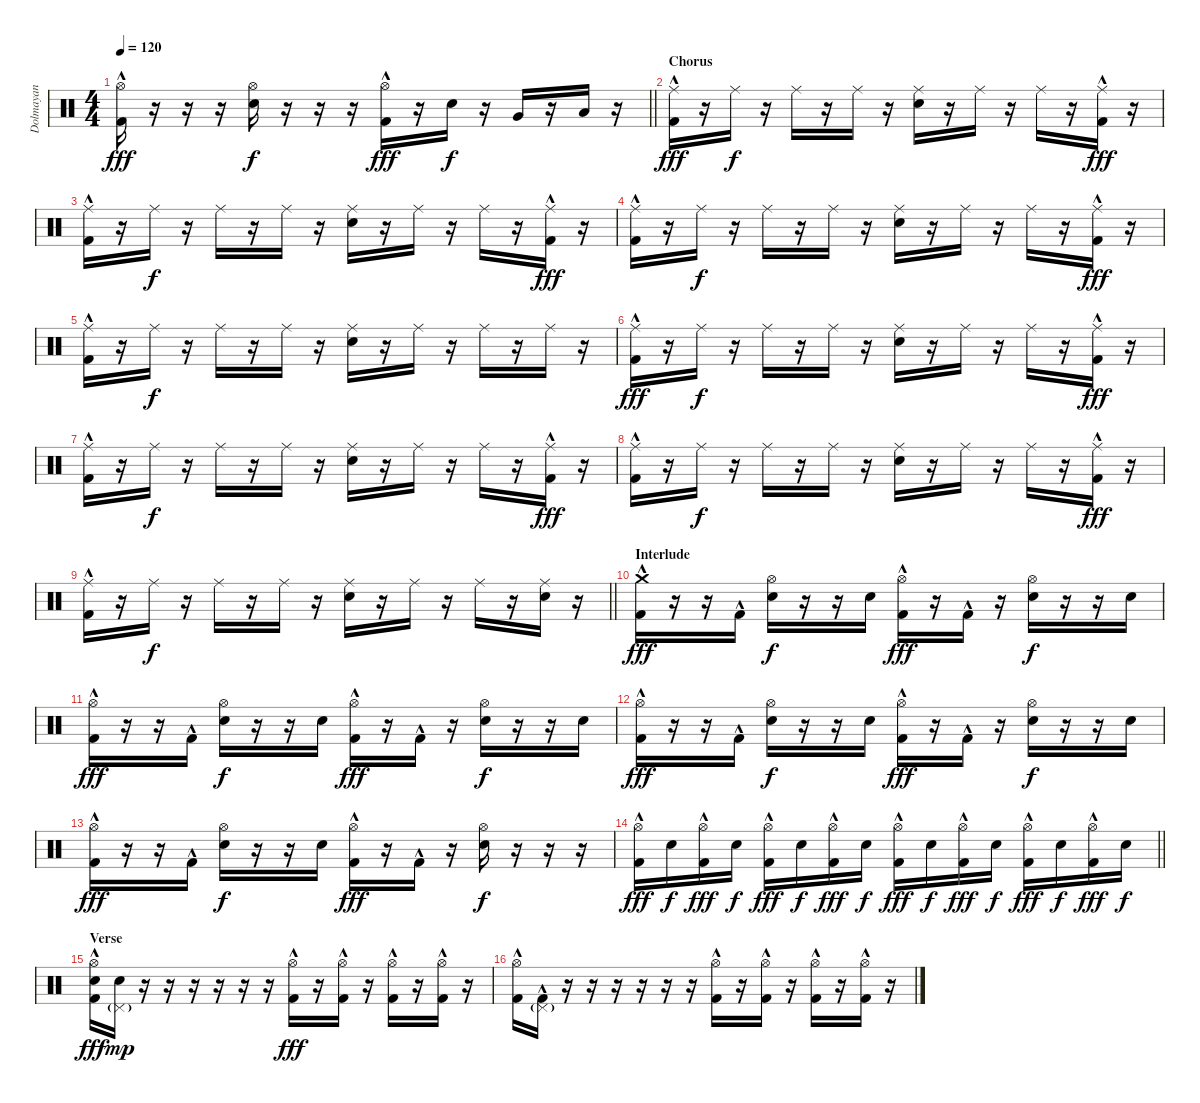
\track ("Dolmayan" "Dolmayan") {instrument percussion}
\staff {score}
\articulation defaults
\ts (4 4)
\tempo 120
\clef neutral
\barLineRight lightlight
\ks c
("Hi-Hat (open)" "Kick (hit) 2"{hac}).16{dy fff} r.16 r.16 r.16 ("Hi-Hat (open)" "Snare (hit) 2").16{dy f} r.16 r.16 r.16 ("Hi-Hat (open)" "Kick (hit) 2"{hac}).16{dy fff} r.16 "Snare (hit) 2".16{dy f} r.16 "Very Low Tom (hit)".16 r.16 "Low Floor Tom (hit)".16 r.16 |
\section ("" "Chorus")
("Ride (middle)" "Kick (hit) 2"{hac}).16{dy fff} r.16 "Ride (middle)".16{dy f} r.16 "Ride (middle)".16 r.16 "Ride (middle)".16 r.16 ("Ride (middle)" "Snare (hit) 2").16 r.16 "Ride (middle)".16 r.16 "Ride (middle)".16 r.16 ("Ride (middle)" "Kick (hit) 2"{hac}).16{dy fff} r.16 |
("Ride (middle)" "Kick (hit) 2"{hac}).16 r.16 "Ride (middle)".16{dy f} r.16 "Ride (middle)".16 r.16 "Ride (middle)".16 r.16 ("Ride (middle)" "Snare (hit) 2").16 r.16 "Ride (middle)".16 r.16 "Ride (middle)".16 r.16 ("Ride (middle)" "Kick (hit) 2"{hac}).16{dy fff} r.16 |
("Ride (middle)" "Kick (hit) 2"{hac}).16 r.16 "Ride (middle)".16{dy f} r.16 "Ride (middle)".16 r.16 "Ride (middle)".16 r.16 ("Ride (middle)" "Snare (hit) 2").16 r.16 "Ride (middle)".16 r.16 "Ride (middle)".16 r.16 ("Ride (middle)" "Kick (hit) 2"{hac}).16{dy fff} r.16 |
("Ride (middle)" "Kick (hit) 2"{hac}).16 r.16 "Ride (middle)".16{dy f} r.16 "Ride (middle)".16 r.16 "Ride (middle)".16 r.16 ("Ride (middle)" "Snare (hit) 2").16 r.16 "Ride (middle)".16 r.16 "Ride (middle)".16 r.16 "Ride (middle)".16 r.16 |
("Ride (middle)" "Kick (hit) 2"{hac}).16{dy fff} r.16 "Ride (middle)".16{dy f} r.16 "Ride (middle)".16 r.16 "Ride (middle)".16 r.16 ("Ride (middle)" "Snare (hit) 2").16 r.16 "Ride (middle)".16 r.16 "Ride (middle)".16 r.16 ("Ride (middle)" "Kick (hit) 2"{hac}).16{dy fff} r.16 |
("Ride (middle)" "Kick (hit) 2"{hac}).16 r.16 "Ride (middle)".16{dy f} r.16 "Ride (middle)".16 r.16 "Ride (middle)".16 r.16 ("Ride (middle)" "Snare (hit) 2").16 r.16 "Ride (middle)".16 r.16 "Ride (middle)".16 r.16 ("Ride (middle)" "Kick (hit) 2"{hac}).16{dy fff} r.16 |
("Ride (middle)" "Kick (hit) 2"{hac}).16 r.16 "Ride (middle)".16{dy f} r.16 "Ride (middle)".16 r.16 "Ride (middle)".16 r.16 ("Ride (middle)" "Snare (hit) 2").16 r.16 "Ride (middle)".16 r.16 "Ride (middle)".16 r.16 ("Ride (middle)" "Kick (hit) 2"{hac}).16{dy fff} r.16 |
\barLineRight lightlight
("Ride (middle)" "Kick (hit) 2"{hac}).16 r.16 "Ride (middle)".16{dy f} r.16 "Ride (middle)".16 r.16 "Ride (middle)".16 r.16 ("Ride (middle)" "Snare (hit) 2").16 r.16 "Ride (middle)".16 r.16 "Ride (middle)".16 r.16 ("Ride (middle)" "Snare (hit) 2").16 r.16 |
\section ("" "Interlude")
("Crash medium (hit)" "Kick (hit) 2"{hac}).16{dy fff} r.16 r.16 "Kick (hit) 2"{hac}.16 ("Hi-Hat (open)" "Snare (hit) 2").16{dy f} r.16 r.16 "Snare (hit) 2".16 ("Hi-Hat (open)" "Kick (hit) 2"{hac}).16{dy fff} r.16 "Kick (hit) 2"{hac}.16 r.16 ("Hi-Hat (open)" "Snare (hit) 2").16{dy f} r.16 r.16 "Snare (hit) 2".16 |
("Hi-Hat (open)" "Kick (hit) 2"{hac}).16{dy fff} r.16 r.16 "Kick (hit) 2"{hac}.16 ("Hi-Hat (open)" "Snare (hit) 2").16{dy f} r.16 r.16 "Snare (hit) 2".16 ("Hi-Hat (open)" "Kick (hit) 2"{hac}).16{dy fff} r.16 "Kick (hit) 2"{hac}.16 r.16 ("Hi-Hat (open)" "Snare (hit) 2").16{dy f} r.16 r.16 "Snare (hit) 2".16 |
("Hi-Hat (open)" "Kick (hit) 2"{hac}).16{dy fff} r.16 r.16 "Kick (hit) 2"{hac}.16 ("Hi-Hat (open)" "Snare (hit) 2").16{dy f} r.16 r.16 "Snare (hit) 2".16 ("Hi-Hat (open)" "Kick (hit) 2"{hac}).16{dy fff} r.16 "Kick (hit) 2"{hac}.16 r.16 ("Hi-Hat (open)" "Snare (hit) 2").16{dy f} r.16 r.16 "Snare (hit) 2".16 |
("Hi-Hat (open)" "Kick (hit) 2"{hac}).16{dy fff} r.16 r.16 "Kick (hit) 2"{hac}.16 ("Hi-Hat (open)" "Snare (hit) 2").16{dy f} r.16 r.16 "Snare (hit) 2".16 ("Hi-Hat (open)" "Kick (hit) 2"{hac}).16{dy fff} r.16 "Kick (hit) 2"{hac}.16 r.16 ("Hi-Hat (open)" "Snare (hit) 2").16{dy f} r.16 r.16 r.16 |
\barLineRight lightlight
("Hi-Hat (open)" "Kick (hit) 2"{hac}).16{dy fff} "Snare (hit) 2".16{dy f} ("Hi-Hat (open)" "Kick (hit) 2"{hac}).16{dy fff} "Snare (hit) 2".16{dy f} ("Hi-Hat (open)" "Kick (hit) 2"{hac}).16{dy fff} "Snare (hit) 2".16{dy f} ("Hi-Hat (open)" "Kick (hit) 2"{hac}).16{dy fff} "Snare (hit) 2".16{dy f} ("Hi-Hat (open)" "Kick (hit) 2"{hac}).16{dy fff} "Snare (hit) 2".16{dy f} ("Hi-Hat (open)" "Kick (hit) 2"{hac}).16{dy fff} "Snare (hit) 2".16{dy f} ("Hi-Hat (open)" "Kick (hit) 2"{hac}).16{dy fff} "Snare (hit) 2".16{dy f} ("Hi-Hat (open)" "Kick (hit) 2"{hac}).16{dy fff} "Snare (hit) 2".16{dy f} |
\section ("" "Verse")
("Hi-Hat (open)" "Snare (hit) 2" "Kick (hit) 2"{hac}).16{dy fff} ("Pedal Hi-Hat (hit)"{g} "Snare (hit) 2").16{dy mp} r.16 r.16 r.16 r.16 r.16 r.16 ("Hi-Hat (open)" "Kick (hit) 2"{hac}).16{dy fff} r.16 ("Hi-Hat (open)" "Kick (hit) 2"{hac}).16 r.16 ("Hi-Hat (open)" "Kick (hit) 2"{hac}).16 r.16 ("Hi-Hat (open)" "Kick (hit) 2"{hac}).16 r.16 |
("Hi-Hat (open)" "Kick (hit) 2"{hac}).16 ("Pedal Hi-Hat (hit)"{g} "Kick (hit) 2"{hac}).16 r.16 r.16 r.16 r.16 r.16 r.16 ("Hi-Hat (open)" "Kick (hit) 2"{hac}).16 r.16 ("Hi-Hat (open)" "Kick (hit) 2"{hac}).16 r.16 ("Hi-Hat (open)" "Kick (hit) 2"{hac}).16 r.16 ("Hi-Hat (open)" "Kick (hit) 2"{hac}).16 r.16
